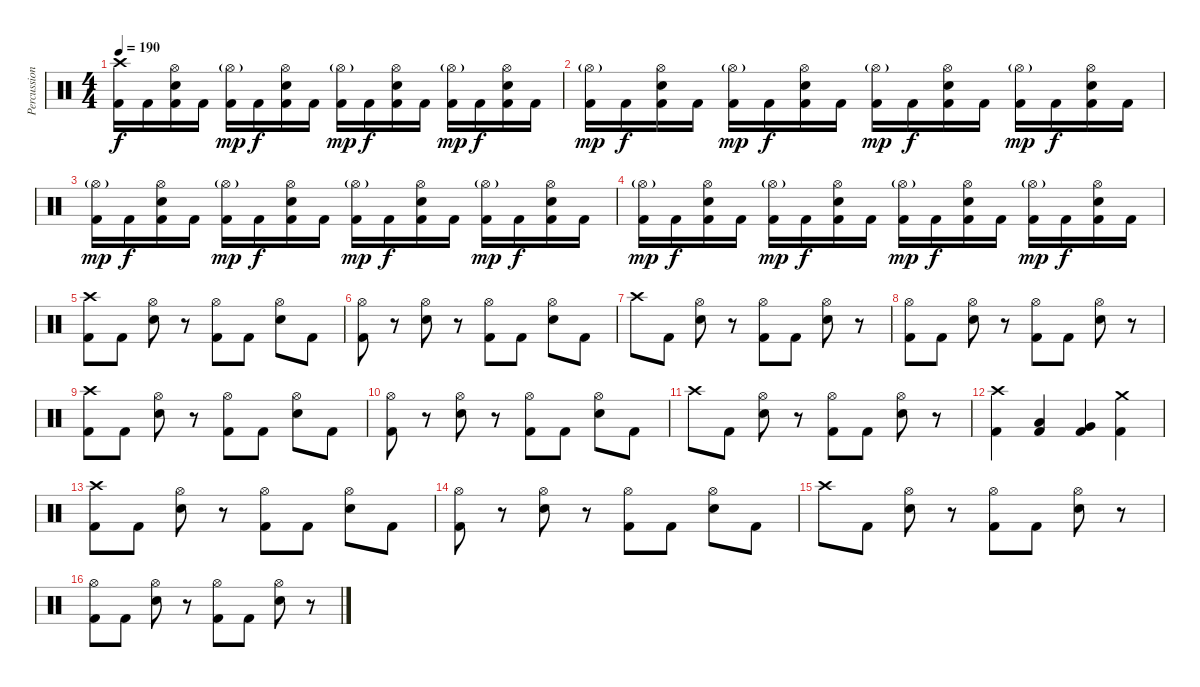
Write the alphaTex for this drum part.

\track ("Percussion" "Percussion") {instrument percussion}
\staff {score}
\articulation defaults
\ts (4 4)
\tempo 190
\clef neutral
\ks c
("Crash high (hit)" "Kick (hit) 2").16{dy f} "Kick (hit) 2".16 ("Hi-Hat (open)" "Electric Snare (hit)" "Kick (hit) 2").16 "Kick (hit) 2".16 ("Hi-Hat (open)"{g} "Kick (hit) 2").16{dy mp} "Kick (hit) 2".16{dy f} ("Hi-Hat (open)" "Electric Snare (hit)" "Kick (hit) 2").16 "Kick (hit) 2".16 ("Hi-Hat (open)"{g} "Kick (hit) 2").16{dy mp} "Kick (hit) 2".16{dy f} ("Hi-Hat (open)" "Electric Snare (hit)" "Kick (hit) 2").16 "Kick (hit) 2".16 ("Hi-Hat (open)"{g} "Kick (hit) 2").16{dy mp} "Kick (hit) 2".16{dy f} ("Hi-Hat (open)" "Electric Snare (hit)" "Kick (hit) 2").16 "Kick (hit) 2".16 |
("Hi-Hat (open)"{g} "Kick (hit) 2").16{dy mp} "Kick (hit) 2".16{dy f} ("Hi-Hat (open)" "Electric Snare (hit)" "Kick (hit) 2").16 "Kick (hit) 2".16 ("Hi-Hat (open)"{g} "Kick (hit) 2").16{dy mp} "Kick (hit) 2".16{dy f} ("Hi-Hat (open)" "Electric Snare (hit)" "Kick (hit) 2").16 "Kick (hit) 2".16 ("Hi-Hat (open)"{g} "Kick (hit) 2").16{dy mp} "Kick (hit) 2".16{dy f} ("Hi-Hat (open)" "Electric Snare (hit)" "Kick (hit) 2").16 "Kick (hit) 2".16 ("Hi-Hat (open)"{g} "Kick (hit) 2").16{dy mp} "Kick (hit) 2".16{dy f} ("Hi-Hat (open)" "Electric Snare (hit)" "Kick (hit) 2").16 "Kick (hit) 2".16 |
("Hi-Hat (open)"{g} "Kick (hit) 2").16{dy mp} "Kick (hit) 2".16{dy f} ("Hi-Hat (open)" "Electric Snare (hit)" "Kick (hit) 2").16 "Kick (hit) 2".16 ("Hi-Hat (open)"{g} "Kick (hit) 2").16{dy mp} "Kick (hit) 2".16{dy f} ("Hi-Hat (open)" "Electric Snare (hit)" "Kick (hit) 2").16 "Kick (hit) 2".16 ("Hi-Hat (open)"{g} "Kick (hit) 2").16{dy mp} "Kick (hit) 2".16{dy f} ("Hi-Hat (open)" "Electric Snare (hit)" "Kick (hit) 2").16 "Kick (hit) 2".16 ("Hi-Hat (open)"{g} "Kick (hit) 2").16{dy mp} "Kick (hit) 2".16{dy f} ("Hi-Hat (open)" "Electric Snare (hit)" "Kick (hit) 2").16 "Kick (hit) 2".16 |
("Hi-Hat (open)"{g} "Kick (hit) 2").16{dy mp} "Kick (hit) 2".16{dy f} ("Hi-Hat (open)" "Electric Snare (hit)" "Kick (hit) 2").16 "Kick (hit) 2".16 ("Hi-Hat (open)"{g} "Kick (hit) 2").16{dy mp} "Kick (hit) 2".16{dy f} ("Hi-Hat (open)" "Electric Snare (hit)" "Kick (hit) 2").16 "Kick (hit) 2".16 ("Hi-Hat (open)"{g} "Kick (hit) 2").16{dy mp} "Kick (hit) 2".16{dy f} ("Hi-Hat (open)" "Electric Snare (hit)" "Kick (hit) 2").16 "Kick (hit) 2".16 ("Hi-Hat (open)"{g} "Kick (hit) 2").16{dy mp} "Kick (hit) 2".16{dy f} ("Hi-Hat (open)" "Electric Snare (hit)" "Kick (hit) 2").16 "Kick (hit) 2".16 |
("Crash high (hit)" "Kick (hit) 2").8 "Kick (hit) 2".8 ("Hi-Hat (open)" "Electric Snare (hit)").8 r.8 ("Hi-Hat (open)" "Kick (hit) 2").8 "Kick (hit) 2".8 ("Hi-Hat (open)" "Electric Snare (hit)").8 "Kick (hit) 2".8 |
("Hi-Hat (open)" "Kick (hit) 2").8 r.8 ("Hi-Hat (open)" "Electric Snare (hit)").8 r.8 ("Hi-Hat (open)" "Kick (hit) 2").8 "Kick (hit) 2".8 ("Hi-Hat (open)" "Electric Snare (hit)").8 "Kick (hit) 2".8 |
"Crash high (hit)".8 "Kick (hit) 2".8 ("Hi-Hat (open)" "Electric Snare (hit)").8 r.8 ("Hi-Hat (open)" "Kick (hit) 2").8 "Kick (hit) 2".8 ("Hi-Hat (open)" "Electric Snare (hit)").8 r.8 |
("Hi-Hat (open)" "Kick (hit) 2").8 "Kick (hit) 2".8 ("Hi-Hat (open)" "Electric Snare (hit)").8 r.8 ("Hi-Hat (open)" "Kick (hit) 2").8 "Kick (hit) 2".8 ("Hi-Hat (open)" "Electric Snare (hit)").8 r.8 |
("Crash high (hit)" "Kick (hit) 2").8 "Kick (hit) 2".8 ("Hi-Hat (open)" "Electric Snare (hit)").8 r.8 ("Hi-Hat (open)" "Kick (hit) 2").8 "Kick (hit) 2".8 ("Hi-Hat (open)" "Electric Snare (hit)").8 "Kick (hit) 2".8 |
("Hi-Hat (open)" "Kick (hit) 2").8 r.8 ("Hi-Hat (open)" "Electric Snare (hit)").8 r.8 ("Hi-Hat (open)" "Kick (hit) 2").8 "Kick (hit) 2".8 ("Hi-Hat (open)" "Electric Snare (hit)").8 "Kick (hit) 2".8 |
"Crash high (hit)".8 "Kick (hit) 2".8 ("Hi-Hat (open)" "Electric Snare (hit)").8 r.8 ("Hi-Hat (open)" "Kick (hit) 2").8 "Kick (hit) 2".8 ("Hi-Hat (open)" "Electric Snare (hit)").8 r.8 |
("Crash high (hit)" "Kick (hit) 2").4 ("Low Tom (hit)" "Kick (hit) 2").4 ("Very Low Tom (hit)" "Kick (hit) 2").4 ("Crash medium (hit)" "Kick (hit) 2").4 |
("Crash high (hit)" "Kick (hit) 2").8 "Kick (hit) 2".8 ("Hi-Hat (open)" "Electric Snare (hit)").8 r.8 ("Hi-Hat (open)" "Kick (hit) 2").8 "Kick (hit) 2".8 ("Hi-Hat (open)" "Electric Snare (hit)").8 "Kick (hit) 2".8 |
("Hi-Hat (open)" "Kick (hit) 2").8 r.8 ("Hi-Hat (open)" "Electric Snare (hit)").8 r.8 ("Hi-Hat (open)" "Kick (hit) 2").8 "Kick (hit) 2".8 ("Hi-Hat (open)" "Electric Snare (hit)").8 "Kick (hit) 2".8 |
"Crash high (hit)".8 "Kick (hit) 2".8 ("Hi-Hat (open)" "Electric Snare (hit)").8 r.8 ("Hi-Hat (open)" "Kick (hit) 2").8 "Kick (hit) 2".8 ("Hi-Hat (open)" "Electric Snare (hit)").8 r.8 |
("Hi-Hat (open)" "Kick (hit) 2").8 "Kick (hit) 2".8 ("Hi-Hat (open)" "Electric Snare (hit)").8 r.8 ("Hi-Hat (open)" "Kick (hit) 2").8 "Kick (hit) 2".8 ("Hi-Hat (open)" "Electric Snare (hit)").8 r.8
